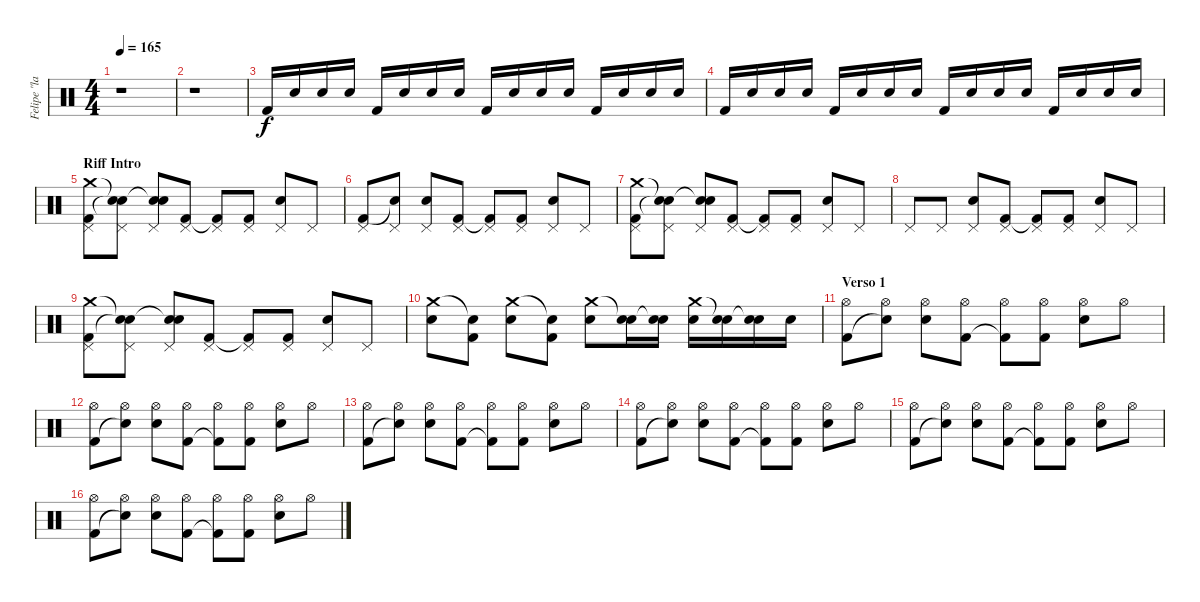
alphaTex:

\track ("Felipe \"la caponera\" Muñoz" "Felipe \"la") {instrument percussion}
\staff {score}
\articulation defaults
\ts (4 4)
\tempo 165
\clef neutral
\ks c
r.1{dy f} |
r.1 |
"Kick (hit) 2".16 "Electric Snare (hit)".16 "Electric Snare (hit)".16 "Electric Snare (hit)".16 "Kick (hit) 2".16 "Electric Snare (hit)".16 "Electric Snare (hit)".16 "Electric Snare (hit)".16 "Kick (hit) 2".16 "Electric Snare (hit)".16 "Electric Snare (hit)".16 "Electric Snare (hit)".16 "Kick (hit) 2".16 "Electric Snare (hit)".16 "Electric Snare (hit)".16 "Electric Snare (hit)".16 |
"Kick (hit) 2".16 "Electric Snare (hit)".16 "Electric Snare (hit)".16 "Electric Snare (hit)".16 "Kick (hit) 2".16 "Electric Snare (hit)".16 "Electric Snare (hit)".16 "Electric Snare (hit)".16 "Kick (hit) 2".16 "Electric Snare (hit)".16 "Electric Snare (hit)".16 "Electric Snare (hit)".16 "Kick (hit) 2".16 "Electric Snare (hit)".16 "Electric Snare (hit)".16 "Electric Snare (hit)".16 |
\section ("" "Riff Intro")
("Pedal Hi-Hat (hit)" "Crash medium (hit)" "Kick (hit) 2").8 ("Pedal Hi-Hat (hit)" "Snare (hit)"{t} "Snare (hit)"{t}).8 ("Pedal Hi-Hat (hit)" "Snare (hit)"{t} "Electric Snare (hit)").8 ("Pedal Hi-Hat (hit)" "Kick (hit) 2").8 ("Pedal Hi-Hat (hit)" "Kick (hit) 2"{t}).8 ("Pedal Hi-Hat (hit)" "Kick (hit) 2").8 ("Pedal Hi-Hat (hit)" "Electric Snare (hit)").8 "Pedal Hi-Hat (hit)".8 |
("Pedal Hi-Hat (hit)" "Kick (hit) 2").8 ("Pedal Hi-Hat (hit)" "Snare (hit)"{t}).8 ("Pedal Hi-Hat (hit)" "Electric Snare (hit)").8 ("Pedal Hi-Hat (hit)" "Kick (hit) 2").8 ("Pedal Hi-Hat (hit)" "Kick (hit) 2"{t}).8 ("Pedal Hi-Hat (hit)" "Kick (hit) 2").8 ("Pedal Hi-Hat (hit)" "Electric Snare (hit)").8 "Pedal Hi-Hat (hit)".8 |
("Pedal Hi-Hat (hit)" "Crash medium (hit)" "Kick (hit) 2").8 ("Pedal Hi-Hat (hit)" "Snare (hit)"{t} "Snare (hit)"{t}).8 ("Pedal Hi-Hat (hit)" "Snare (hit)"{t} "Electric Snare (hit)").8 ("Pedal Hi-Hat (hit)" "Kick (hit) 2").8 ("Pedal Hi-Hat (hit)" "Kick (hit) 2"{t}).8 ("Pedal Hi-Hat (hit)" "Kick (hit) 2").8 ("Pedal Hi-Hat (hit)" "Electric Snare (hit)").8 "Pedal Hi-Hat (hit)".8 |
"Pedal Hi-Hat (hit)".8 "Pedal Hi-Hat (hit)".8 ("Pedal Hi-Hat (hit)" "Electric Snare (hit)").8 ("Pedal Hi-Hat (hit)" "Kick (hit) 2").8 ("Pedal Hi-Hat (hit)" "Kick (hit) 2"{t}).8 ("Pedal Hi-Hat (hit)" "Kick (hit) 2").8 ("Pedal Hi-Hat (hit)" "Electric Snare (hit)").8 "Pedal Hi-Hat (hit)".8 |
("Pedal Hi-Hat (hit)" "Crash medium (hit)" "Kick (hit) 2").8 ("Pedal Hi-Hat (hit)" "Snare (hit)"{t} "Snare (hit)"{t}).8 ("Pedal Hi-Hat (hit)" "Snare (hit)"{t} "Electric Snare (hit)").8 ("Pedal Hi-Hat (hit)" "Kick (hit) 2").8 ("Pedal Hi-Hat (hit)" "Kick (hit) 2"{t}).8 ("Pedal Hi-Hat (hit)" "Kick (hit) 2").8 ("Pedal Hi-Hat (hit)" "Electric Snare (hit)").8 "Pedal Hi-Hat (hit)".8 |
("Crash medium (hit)" "Electric Snare (hit)").8 ("Snare (hit)"{t} "Kick (hit) 2").8 ("Crash medium (hit)" "Electric Snare (hit)").8 ("Snare (hit)"{t} "Kick (hit) 2").8 ("Crash medium (hit)" "Electric Snare (hit)").8 ("Snare (hit)"{t} "Electric Snare (hit)").16 ("Snare (hit)"{t} "Electric Snare (hit)").16 ("Crash medium (hit)" "Electric Snare (hit)").16 ("Snare (hit)"{t} "Electric Snare (hit)").16 ("Snare (hit)"{t} "Electric Snare (hit)").16 "Electric Snare (hit)".16 |
\section ("" "Verso 1")
("Hi-Hat (open)" "Kick (hit) 2").8 ("Hi-Hat (open)" "Snare (hit)"{t}).8 ("Hi-Hat (open)" "Electric Snare (hit)").8 ("Hi-Hat (open)" "Kick (hit) 2").8 ("Hi-Hat (open)" "Kick (hit) 2"{t}).8 ("Hi-Hat (open)" "Kick (hit) 2").8 ("Hi-Hat (open)" "Electric Snare (hit)").8 "Hi-Hat (open)".8 |
("Hi-Hat (open)" "Kick (hit) 2").8 ("Hi-Hat (open)" "Snare (hit)"{t}).8 ("Hi-Hat (open)" "Electric Snare (hit)").8 ("Hi-Hat (open)" "Kick (hit) 2").8 ("Hi-Hat (open)" "Kick (hit) 2"{t}).8 ("Hi-Hat (open)" "Kick (hit) 2").8 ("Hi-Hat (open)" "Electric Snare (hit)").8 "Hi-Hat (open)".8 |
("Hi-Hat (open)" "Kick (hit) 2").8 ("Hi-Hat (open)" "Snare (hit)"{t}).8 ("Hi-Hat (open)" "Electric Snare (hit)").8 ("Hi-Hat (open)" "Kick (hit) 2").8 ("Hi-Hat (open)" "Kick (hit) 2"{t}).8 ("Hi-Hat (open)" "Kick (hit) 2").8 ("Hi-Hat (open)" "Electric Snare (hit)").8 "Hi-Hat (open)".8 |
("Hi-Hat (open)" "Kick (hit) 2").8 ("Hi-Hat (open)" "Snare (hit)"{t}).8 ("Hi-Hat (open)" "Electric Snare (hit)").8 ("Hi-Hat (open)" "Kick (hit) 2").8 ("Hi-Hat (open)" "Kick (hit) 2"{t}).8 ("Hi-Hat (open)" "Kick (hit) 2").8 ("Hi-Hat (open)" "Electric Snare (hit)").8 "Hi-Hat (open)".8 |
("Hi-Hat (open)" "Kick (hit) 2").8 ("Hi-Hat (open)" "Snare (hit)"{t}).8 ("Hi-Hat (open)" "Electric Snare (hit)").8 ("Hi-Hat (open)" "Kick (hit) 2").8 ("Hi-Hat (open)" "Kick (hit) 2"{t}).8 ("Hi-Hat (open)" "Kick (hit) 2").8 ("Hi-Hat (open)" "Electric Snare (hit)").8 "Hi-Hat (open)".8 |
("Hi-Hat (open)" "Kick (hit) 2").8 ("Hi-Hat (open)" "Snare (hit)"{t}).8 ("Hi-Hat (open)" "Electric Snare (hit)").8 ("Hi-Hat (open)" "Kick (hit) 2").8 ("Hi-Hat (open)" "Kick (hit) 2"{t}).8 ("Hi-Hat (open)" "Kick (hit) 2").8 ("Hi-Hat (open)" "Electric Snare (hit)").8 "Hi-Hat (open)".8
